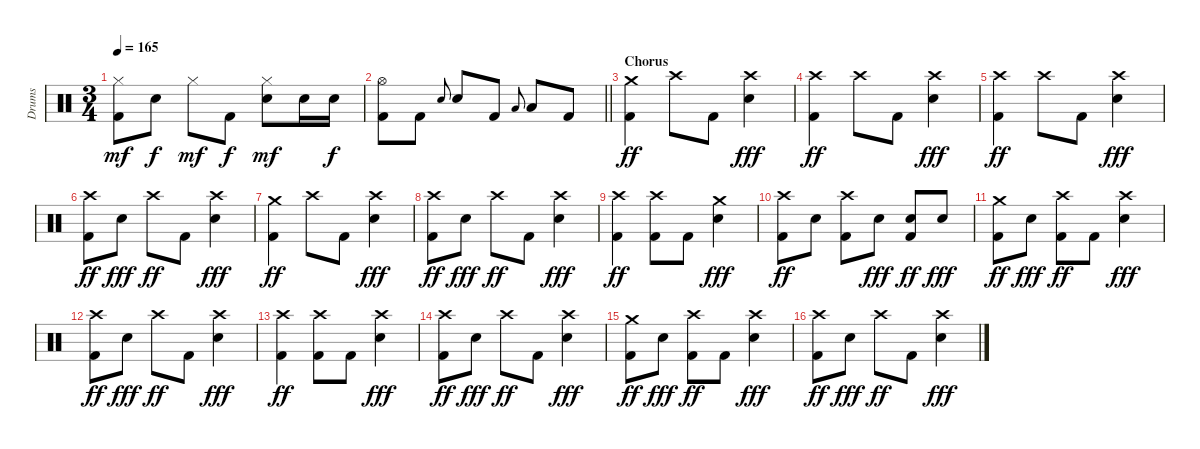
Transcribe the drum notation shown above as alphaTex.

\track ("Drums" "Drums") {instrument percussion}
\staff {score}
\articulation defaults
\ts (3 4)
\tempo 165
\clef neutral
\ks c
("Hi-Hat (closed)" "Kick (hit) 2").8{dy mf} "Snare (hit) 2".8{dy f} "Hi-Hat (closed)".8{dy mf} "Kick (hit) 2".8{dy f} ("Hi-Hat (closed)" "Snare (hit) 2").8{dy mf} "Snare (hit) 2".16 "Snare (hit) 2".16{dy f} |
\barLineRight lightlight
("Hi-Hat (open)" "Kick (hit) 2").8 "Kick (hit) 2".8 "Snare (hit) 2".8{gr onbeat} "Snare (hit) 2".8 "Kick (hit) 2".8 "Low Tom (hit)".8{gr onbeat} "Low Tom (hit)".8 "Kick (hit) 2".8 |
\section ("" "Chorus")
("Crash medium (hit)" "Kick (hit) 2").4{dy ff} "Crash high (hit)".8 "Kick (hit) 2".8 ("Crash high (hit)" "Snare (hit) 2").4{dy fff} |
("Crash high (hit)" "Kick (hit) 2").4{dy ff} "Crash high (hit)".8 "Kick (hit) 2".8 ("Crash high (hit)" "Snare (hit) 2").4{dy fff} |
("Crash high (hit)" "Kick (hit) 2").4{dy ff} "Crash high (hit)".8 "Kick (hit) 2".8 ("Crash high (hit)" "Snare (hit) 2").4{dy fff} |
("Crash high (hit)" "Kick (hit) 2").8{dy ff} "Snare (hit) 2".8{dy fff} "Crash high (hit)".8{dy ff} "Kick (hit) 2".8 ("Crash high (hit)" "Snare (hit) 2").4{dy fff} |
("Crash medium (hit)" "Kick (hit) 2").4{dy ff} "Crash high (hit)".8 "Kick (hit) 2".8 ("Crash high (hit)" "Snare (hit) 2").4{dy fff} |
("Crash high (hit)" "Kick (hit) 2").8{dy ff} "Snare (hit) 2".8{dy fff} "Crash high (hit)".8{dy ff} "Kick (hit) 2".8 ("Crash high (hit)" "Snare (hit) 2").4{dy fff} |
("Crash high (hit)" "Kick (hit) 2").4{dy ff} ("Crash high (hit)" "Kick (hit) 2").8 "Kick (hit) 2".8 ("Crash medium (hit)" "Snare (hit) 2").4{dy fff} |
("Crash high (hit)" "Kick (hit) 2").8{dy ff} "Snare (hit) 2".8 ("Crash high (hit)" "Kick (hit) 2").8 "Snare (hit) 2".8{dy fff} ("Snare (hit) 2" "Kick (hit) 2").8{dy ff} "Snare (hit) 2".8{dy fff} |
("Crash medium (hit)" "Kick (hit) 2").8{dy ff} "Snare (hit) 2".8{dy fff} ("Crash high (hit)" "Kick (hit) 2").8{dy ff} "Kick (hit) 2".8 ("Crash high (hit)" "Snare (hit) 2").4{dy fff} |
("Crash high (hit)" "Kick (hit) 2").8{dy ff} "Snare (hit) 2".8{dy fff} "Crash high (hit)".8{dy ff} "Kick (hit) 2".8 ("Crash high (hit)" "Snare (hit) 2").4{dy fff} |
("Crash high (hit)" "Kick (hit) 2").4{dy ff} ("Crash high (hit)" "Kick (hit) 2").8 "Kick (hit) 2".8 ("Crash high (hit)" "Snare (hit) 2").4{dy fff} |
("Crash high (hit)" "Kick (hit) 2").8{dy ff} "Snare (hit) 2".8{dy fff} "Crash high (hit)".8{dy ff} "Kick (hit) 2".8 ("Crash high (hit)" "Snare (hit) 2").4{dy fff} |
("Crash medium (hit)" "Kick (hit) 2").8{dy ff} "Snare (hit) 2".8{dy fff} ("Crash high (hit)" "Kick (hit) 2").8{dy ff} "Kick (hit) 2".8 ("Crash high (hit)" "Snare (hit) 2").4{dy fff} |
("Crash high (hit)" "Kick (hit) 2").8{dy ff} "Snare (hit) 2".8{dy fff} "Crash high (hit)".8{dy ff} "Kick (hit) 2".8 ("Crash high (hit)" "Snare (hit) 2").4{dy fff}
